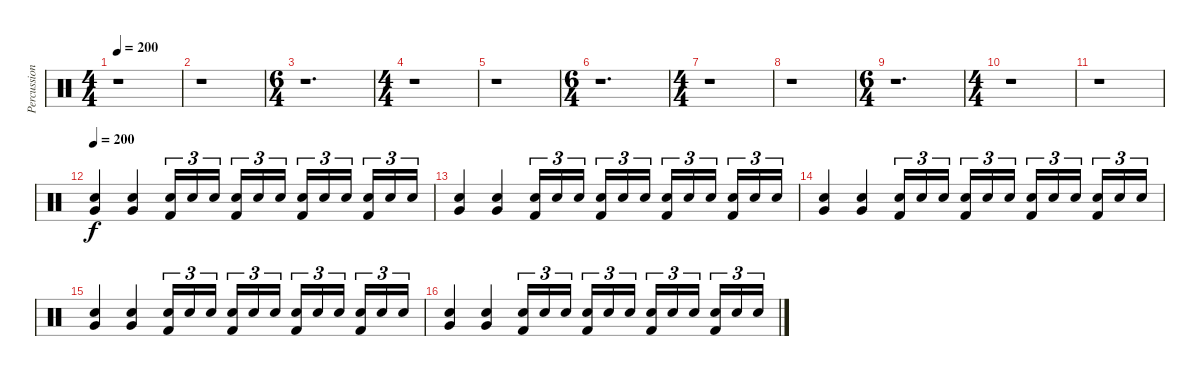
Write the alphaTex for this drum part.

\track ("Percussion" "Percussion") {instrument percussion}
\staff {score}
\articulation defaults
\ts (4 4)
\tempo 200
\clef neutral
\ks c
r.1{dy f} |
r.1 |
\ts (6 4)
r.1{d} |
\ts (4 4)
r.1 |
r.1 |
\ts (6 4)
r.1{d} |
\ts (4 4)
r.1 |
r.1 |
\ts (6 4)
r.1{d} |
\ts (4 4)
r.1 |
r.1 |
\tempo 200
("Snare (hit) 2" "Very Low Tom (hit)").4 ("Snare (hit) 2" "Very Low Tom (hit)").4 ("Snare (hit) 2" "Kick (hit) 2").16{tu (3 2)} "Snare (hit) 2".16{tu (3 2)} "Snare (hit) 2".16{tu (3 2)} ("Snare (hit) 2" "Kick (hit) 2").16{tu (3 2)} "Snare (hit) 2".16{tu (3 2)} "Snare (hit) 2".16{tu (3 2)} ("Snare (hit) 2" "Kick (hit) 2").16{tu (3 2)} "Snare (hit) 2".16{tu (3 2)} "Snare (hit) 2".16{tu (3 2)} ("Snare (hit) 2" "Kick (hit) 2").16{tu (3 2)} "Snare (hit) 2".16{tu (3 2)} "Snare (hit) 2".16{tu (3 2)} |
("Snare (hit) 2" "Very Low Tom (hit)").4 ("Snare (hit) 2" "Very Low Tom (hit)").4 ("Snare (hit) 2" "Kick (hit) 2").16{tu (3 2)} "Snare (hit) 2".16{tu (3 2)} "Snare (hit) 2".16{tu (3 2)} ("Snare (hit) 2" "Kick (hit) 2").16{tu (3 2)} "Snare (hit) 2".16{tu (3 2)} "Snare (hit) 2".16{tu (3 2)} ("Snare (hit) 2" "Kick (hit) 2").16{tu (3 2)} "Snare (hit) 2".16{tu (3 2)} "Snare (hit) 2".16{tu (3 2)} ("Snare (hit) 2" "Kick (hit) 2").16{tu (3 2)} "Snare (hit) 2".16{tu (3 2)} "Snare (hit) 2".16{tu (3 2)} |
("Snare (hit) 2" "Very Low Tom (hit)").4 ("Snare (hit) 2" "Very Low Tom (hit)").4 ("Snare (hit) 2" "Kick (hit) 2").16{tu (3 2)} "Snare (hit) 2".16{tu (3 2)} "Snare (hit) 2".16{tu (3 2)} ("Snare (hit) 2" "Kick (hit) 2").16{tu (3 2)} "Snare (hit) 2".16{tu (3 2)} "Snare (hit) 2".16{tu (3 2)} ("Snare (hit) 2" "Kick (hit) 2").16{tu (3 2)} "Snare (hit) 2".16{tu (3 2)} "Snare (hit) 2".16{tu (3 2)} ("Snare (hit) 2" "Kick (hit) 2").16{tu (3 2)} "Snare (hit) 2".16{tu (3 2)} "Snare (hit) 2".16{tu (3 2)} |
("Snare (hit) 2" "Very Low Tom (hit)").4 ("Snare (hit) 2" "Very Low Tom (hit)").4 ("Snare (hit) 2" "Kick (hit) 2").16{tu (3 2)} "Snare (hit) 2".16{tu (3 2)} "Snare (hit) 2".16{tu (3 2)} ("Snare (hit) 2" "Kick (hit) 2").16{tu (3 2)} "Snare (hit) 2".16{tu (3 2)} "Snare (hit) 2".16{tu (3 2)} ("Snare (hit) 2" "Kick (hit) 2").16{tu (3 2)} "Snare (hit) 2".16{tu (3 2)} "Snare (hit) 2".16{tu (3 2)} ("Snare (hit) 2" "Kick (hit) 2").16{tu (3 2)} "Snare (hit) 2".16{tu (3 2)} "Snare (hit) 2".16{tu (3 2)} |
("Snare (hit) 2" "Very Low Tom (hit)").4 ("Snare (hit) 2" "Very Low Tom (hit)").4 ("Snare (hit) 2" "Kick (hit) 2").16{tu (3 2)} "Snare (hit) 2".16{tu (3 2)} "Snare (hit) 2".16{tu (3 2)} ("Snare (hit) 2" "Kick (hit) 2").16{tu (3 2)} "Snare (hit) 2".16{tu (3 2)} "Snare (hit) 2".16{tu (3 2)} ("Snare (hit) 2" "Kick (hit) 2").16{tu (3 2)} "Snare (hit) 2".16{tu (3 2)} "Snare (hit) 2".16{tu (3 2)} ("Snare (hit) 2" "Kick (hit) 2").16{tu (3 2)} "Snare (hit) 2".16{tu (3 2)} "Snare (hit) 2".16{tu (3 2)}
